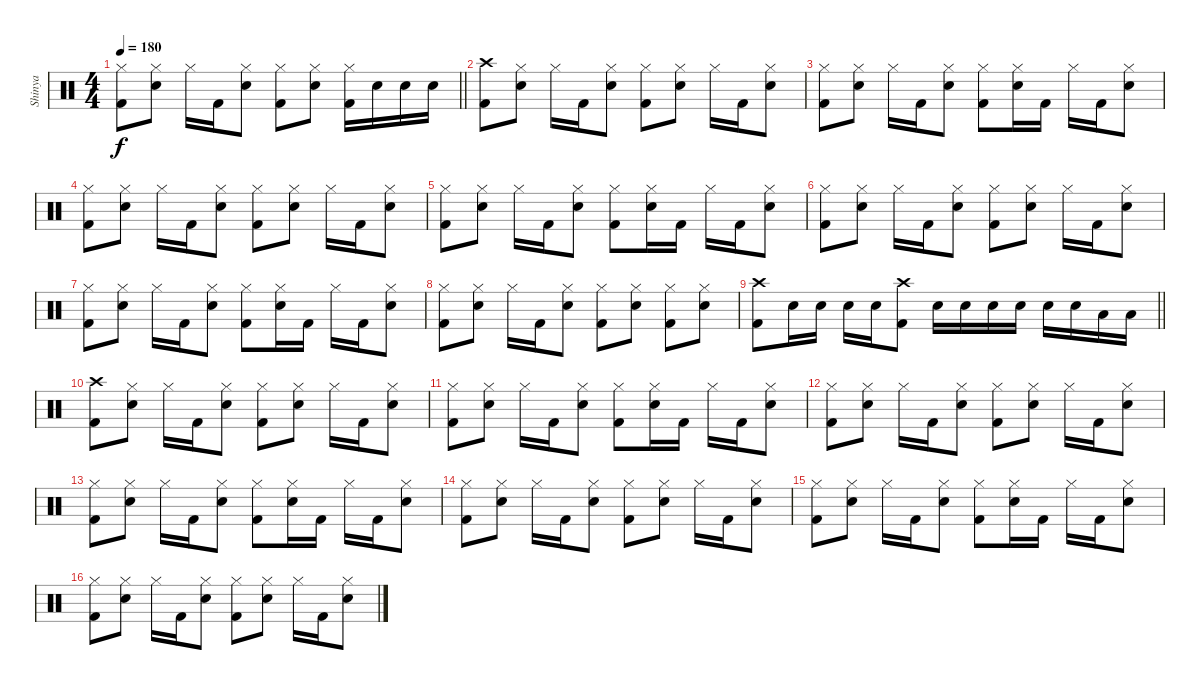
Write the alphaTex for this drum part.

\track ("Shinya" "Shinya") {instrument percussion}
\staff {score}
\articulation defaults
\ts (4 4)
\tempo 180
\clef neutral
\barLineRight lightlight
\ks c
("Hi-Hat (closed)" "Kick (hit) 2").8{dy f} ("Hi-Hat (closed)" "Electric Snare (hit)").8 "Hi-Hat (closed)".16 "Kick (hit) 2".16 ("Hi-Hat (closed)" "Electric Snare (hit)").8 ("Hi-Hat (closed)" "Kick (hit) 2").8 ("Hi-Hat (closed)" "Electric Snare (hit)").8 ("Hi-Hat (closed)" "Kick (hit) 2").16 "Electric Snare (hit)".16 "Electric Snare (hit)".16 "Electric Snare (hit)".16 |
("Crash high (hit)" "Kick (hit) 2").8 ("Hi-Hat (closed)" "Electric Snare (hit)").8 "Hi-Hat (closed)".16 "Kick (hit) 2".16 ("Hi-Hat (closed)" "Electric Snare (hit)").8 ("Hi-Hat (closed)" "Kick (hit) 2").8 ("Hi-Hat (closed)" "Electric Snare (hit)").8 "Hi-Hat (closed)".16 "Kick (hit) 2".16 ("Hi-Hat (closed)" "Electric Snare (hit)").8 |
("Hi-Hat (closed)" "Kick (hit) 2").8 ("Hi-Hat (closed)" "Electric Snare (hit)").8 "Hi-Hat (closed)".16 "Kick (hit) 2".16 ("Hi-Hat (closed)" "Electric Snare (hit)").8 ("Hi-Hat (closed)" "Kick (hit) 2").8 ("Hi-Hat (closed)" "Electric Snare (hit)").16 "Kick (hit) 2".16 "Hi-Hat (closed)".16 "Kick (hit) 2".16 ("Hi-Hat (closed)" "Electric Snare (hit)").8 |
("Hi-Hat (closed)" "Kick (hit) 2").8 ("Hi-Hat (closed)" "Electric Snare (hit)").8 "Hi-Hat (closed)".16 "Kick (hit) 2".16 ("Hi-Hat (closed)" "Electric Snare (hit)").8 ("Hi-Hat (closed)" "Kick (hit) 2").8 ("Hi-Hat (closed)" "Electric Snare (hit)").8 "Hi-Hat (closed)".16 "Kick (hit) 2".16 ("Hi-Hat (closed)" "Electric Snare (hit)").8 |
("Hi-Hat (closed)" "Kick (hit) 2").8 ("Hi-Hat (closed)" "Electric Snare (hit)").8 "Hi-Hat (closed)".16 "Kick (hit) 2".16 ("Hi-Hat (closed)" "Electric Snare (hit)").8 ("Hi-Hat (closed)" "Kick (hit) 2").8 ("Hi-Hat (closed)" "Electric Snare (hit)").16 "Kick (hit) 2".16 "Hi-Hat (closed)".16 "Kick (hit) 2".16 ("Hi-Hat (closed)" "Electric Snare (hit)").8 |
("Hi-Hat (closed)" "Kick (hit) 2").8 ("Hi-Hat (closed)" "Electric Snare (hit)").8 "Hi-Hat (closed)".16 "Kick (hit) 2".16 ("Hi-Hat (closed)" "Electric Snare (hit)").8 ("Hi-Hat (closed)" "Kick (hit) 2").8 ("Hi-Hat (closed)" "Electric Snare (hit)").8 "Hi-Hat (closed)".16 "Kick (hit) 2".16 ("Hi-Hat (closed)" "Electric Snare (hit)").8 |
("Hi-Hat (closed)" "Kick (hit) 2").8 ("Hi-Hat (closed)" "Electric Snare (hit)").8 "Hi-Hat (closed)".16 "Kick (hit) 2".16 ("Hi-Hat (closed)" "Electric Snare (hit)").8 ("Hi-Hat (closed)" "Kick (hit) 2").8 ("Hi-Hat (closed)" "Electric Snare (hit)").16 "Kick (hit) 2".16 "Hi-Hat (closed)".16 "Kick (hit) 2".16 ("Hi-Hat (closed)" "Electric Snare (hit)").8 |
("Hi-Hat (closed)" "Kick (hit) 2").8 ("Hi-Hat (closed)" "Electric Snare (hit)").8 "Hi-Hat (closed)".16 "Kick (hit) 2".16 ("Hi-Hat (closed)" "Electric Snare (hit)").8 ("Hi-Hat (closed)" "Kick (hit) 2").8 ("Hi-Hat (closed)" "Electric Snare (hit)").8 ("Hi-Hat (closed)" "Kick (hit) 2").8 ("Hi-Hat (closed)" "Electric Snare (hit)").8 |
\barLineRight lightlight
("Crash high (hit)" "Kick (hit) 2").8 "Electric Snare (hit)".16 "Electric Snare (hit)".16 "Electric Snare (hit)".16 "Electric Snare (hit)".16 ("Crash high (hit)" "Kick (hit) 2").8 "Electric Snare (hit)".16 "Electric Snare (hit)".16 "Electric Snare (hit)".16 "Electric Snare (hit)".16 "Electric Snare (hit)".16 "Electric Snare (hit)".16 "Low Tom (hit)".16 "Low Tom (hit)".16 |
("Crash high (hit)" "Kick (hit) 2").8 ("Hi-Hat (closed)" "Electric Snare (hit)").8 "Hi-Hat (closed)".16 "Kick (hit) 2".16 ("Hi-Hat (closed)" "Electric Snare (hit)").8 ("Hi-Hat (closed)" "Kick (hit) 2").8 ("Hi-Hat (closed)" "Electric Snare (hit)").8 "Hi-Hat (closed)".16 "Kick (hit) 2".16 ("Hi-Hat (closed)" "Electric Snare (hit)").8 |
("Hi-Hat (closed)" "Kick (hit) 2").8 ("Hi-Hat (closed)" "Electric Snare (hit)").8 "Hi-Hat (closed)".16 "Kick (hit) 2".16 ("Hi-Hat (closed)" "Electric Snare (hit)").8 ("Hi-Hat (closed)" "Kick (hit) 2").8 ("Hi-Hat (closed)" "Electric Snare (hit)").16 "Kick (hit) 2".16 "Hi-Hat (closed)".16 "Kick (hit) 2".16 ("Hi-Hat (closed)" "Electric Snare (hit)").8 |
("Hi-Hat (closed)" "Kick (hit) 2").8 ("Hi-Hat (closed)" "Electric Snare (hit)").8 "Hi-Hat (closed)".16 "Kick (hit) 2".16 ("Hi-Hat (closed)" "Electric Snare (hit)").8 ("Hi-Hat (closed)" "Kick (hit) 2").8 ("Hi-Hat (closed)" "Electric Snare (hit)").8 "Hi-Hat (closed)".16 "Kick (hit) 2".16 ("Hi-Hat (closed)" "Electric Snare (hit)").8 |
("Hi-Hat (closed)" "Kick (hit) 2").8 ("Hi-Hat (closed)" "Electric Snare (hit)").8 "Hi-Hat (closed)".16 "Kick (hit) 2".16 ("Hi-Hat (closed)" "Electric Snare (hit)").8 ("Hi-Hat (closed)" "Kick (hit) 2").8 ("Hi-Hat (closed)" "Electric Snare (hit)").16 "Kick (hit) 2".16 "Hi-Hat (closed)".16 "Kick (hit) 2".16 ("Hi-Hat (closed)" "Electric Snare (hit)").8 |
("Hi-Hat (closed)" "Kick (hit) 2").8 ("Hi-Hat (closed)" "Electric Snare (hit)").8 "Hi-Hat (closed)".16 "Kick (hit) 2".16 ("Hi-Hat (closed)" "Electric Snare (hit)").8 ("Hi-Hat (closed)" "Kick (hit) 2").8 ("Hi-Hat (closed)" "Electric Snare (hit)").8 "Hi-Hat (closed)".16 "Kick (hit) 2".16 ("Hi-Hat (closed)" "Electric Snare (hit)").8 |
("Hi-Hat (closed)" "Kick (hit) 2").8 ("Hi-Hat (closed)" "Electric Snare (hit)").8 "Hi-Hat (closed)".16 "Kick (hit) 2".16 ("Hi-Hat (closed)" "Electric Snare (hit)").8 ("Hi-Hat (closed)" "Kick (hit) 2").8 ("Hi-Hat (closed)" "Electric Snare (hit)").16 "Kick (hit) 2".16 "Hi-Hat (closed)".16 "Kick (hit) 2".16 ("Hi-Hat (closed)" "Electric Snare (hit)").8 |
("Hi-Hat (closed)" "Kick (hit) 2").8 ("Hi-Hat (closed)" "Electric Snare (hit)").8 "Hi-Hat (closed)".16 "Kick (hit) 2".16 ("Hi-Hat (closed)" "Electric Snare (hit)").8 ("Hi-Hat (closed)" "Kick (hit) 2").8 ("Hi-Hat (closed)" "Electric Snare (hit)").8 "Hi-Hat (closed)".16 "Kick (hit) 2".16 ("Hi-Hat (closed)" "Electric Snare (hit)").8
